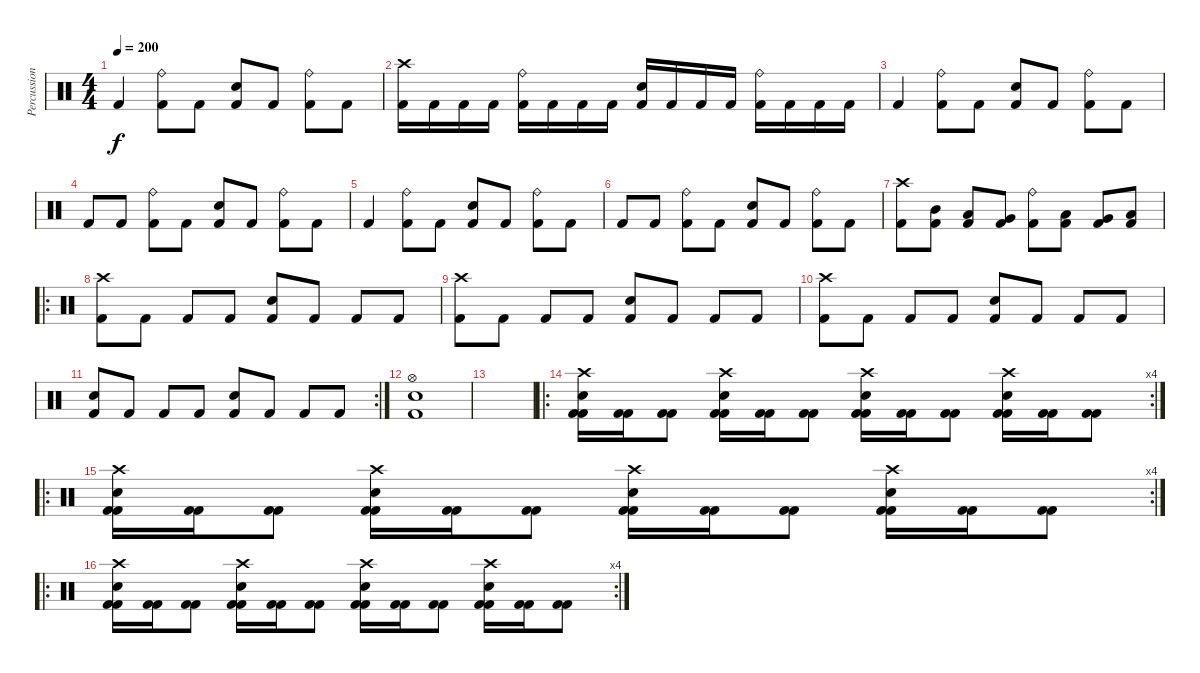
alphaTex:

\track ("Percussion" "Percussion") {instrument percussion}
\staff {score}
\articulation defaults
\ts (4 4)
\tempo 200
\clef neutral
\ks c "Kick (hit) 2".4{dy f}
("Ride (bell)" "Kick (hit) 2").8 "Kick (hit) 2".8 ("Electric Snare (hit)" "Kick (hit) 2").8 "Kick (hit) 2".8 ("Ride (bell)" "Kick (hit) 2").8 "Kick (hit) 2".8 |
("Crash high (hit)" "Kick (hit) 2").16 "Kick (hit) 2".16 "Kick (hit) 2".16 "Kick (hit) 2".16 ("Ride (bell)" "Kick (hit) 2").16 "Kick (hit) 2".16 "Kick (hit) 2".16 "Kick (hit) 2".16 ("Electric Snare (hit)" "Kick (hit) 2").16 "Kick (hit) 2".16 "Kick (hit) 2".16 "Kick (hit) 2".16 ("Ride (bell)" "Kick (hit) 2").16 "Kick (hit) 2".16 "Kick (hit) 2".16 "Kick (hit) 2".16 |
"Kick (hit) 2".4 ("Ride (bell)" "Kick (hit) 2").8 "Kick (hit) 2".8 ("Electric Snare (hit)" "Kick (hit) 2").8 "Kick (hit) 2".8 ("Ride (bell)" "Kick (hit) 2").8 "Kick (hit) 2".8 |
"Kick (hit) 2".8 "Kick (hit) 2".8 ("Ride (bell)" "Kick (hit) 2").8 "Kick (hit) 2".8 ("Electric Snare (hit)" "Kick (hit) 2").8 "Kick (hit) 2".8 ("Ride (bell)" "Kick (hit) 2").8 "Kick (hit) 2".8 |
"Kick (hit) 2".4 ("Ride (bell)" "Kick (hit) 2").8 "Kick (hit) 2".8 ("Electric Snare (hit)" "Kick (hit) 2").8 "Kick (hit) 2".8 ("Ride (bell)" "Kick (hit) 2").8 "Kick (hit) 2".8 |
"Kick (hit) 2".8 "Kick (hit) 2".8 ("Ride (bell)" "Kick (hit) 2").8 "Kick (hit) 2".8 ("Electric Snare (hit)" "Kick (hit) 2").8 "Kick (hit) 2".8 ("Ride (bell)" "Kick (hit) 2").8 "Kick (hit) 2".8 |
("Crash high (hit)" "Kick (hit) 2").8 ("Mid Tom (hit)" "Kick (hit) 2").8 ("Low Tom (hit)" "Kick (hit) 2").8 ("Very Low Tom (hit)" "Kick (hit) 2").8 ("Ride (bell)" "Kick (hit) 2").8 ("Low Tom (hit)" "Kick (hit) 2").8 ("Very Low Tom (hit)" "Kick (hit) 2").8 ("Low Floor Tom (hit)" "Kick (hit) 2").8 |
\ro
("Crash high (hit)" "Kick (hit) 2").8 "Kick (hit) 2".8 "Kick (hit) 2".8 "Kick (hit) 2".8 ("Electric Snare (hit)" "Kick (hit) 2").8 "Kick (hit) 2".8 "Kick (hit) 2".8 "Kick (hit) 2".8 |
("Crash high (hit)" "Kick (hit) 2").8 "Kick (hit) 2".8 "Kick (hit) 2".8 "Kick (hit) 2".8 ("Electric Snare (hit)" "Kick (hit) 2").8 "Kick (hit) 2".8 "Kick (hit) 2".8 "Kick (hit) 2".8 |
("Crash high (hit)" "Kick (hit) 2").8 "Kick (hit) 2".8 "Kick (hit) 2".8 "Kick (hit) 2".8 ("Electric Snare (hit)" "Kick (hit) 2").8 "Kick (hit) 2".8 "Kick (hit) 2".8 "Kick (hit) 2".8 |
\rc 2
("Electric Snare (hit)" "Kick (hit) 2").8 "Kick (hit) 2".8 "Kick (hit) 2".8 "Kick (hit) 2".8 ("Electric Snare (hit)" "Kick (hit) 2").8 "Kick (hit) 2".8 "Kick (hit) 2".8 "Kick (hit) 2".8 |
("Hi-Hat (open)" "Electric Snare (hit)" "Kick (hit) 2").1 |
|
\ro
\rc 4
("Crash high (hit)" "Electric Snare (hit)" "Kick (hit) 2" "Kick (hit) 2").16 ("Kick (hit) 2" "Kick (hit) 2").16 ("Kick (hit) 2" "Kick (hit) 2").8 ("Crash high (hit)" "Electric Snare (hit)" "Kick (hit) 2" "Kick (hit) 2").16 ("Kick (hit) 2" "Kick (hit) 2").16 ("Kick (hit) 2" "Kick (hit) 2").8 ("Crash high (hit)" "Electric Snare (hit)" "Kick (hit) 2" "Kick (hit) 2").16 ("Kick (hit) 2" "Kick (hit) 2").16 ("Kick (hit) 2" "Kick (hit) 2").8 ("Crash high (hit)" "Electric Snare (hit)" "Kick (hit) 2" "Kick (hit) 2").16 ("Kick (hit) 2" "Kick (hit) 2").16 ("Kick (hit) 2" "Kick (hit) 2").8 |
\ro
\rc 4
("Crash high (hit)" "Electric Snare (hit)" "Kick (hit) 2" "Kick (hit) 2").16 ("Kick (hit) 2" "Kick (hit) 2").16 ("Kick (hit) 2" "Kick (hit) 2").8 ("Crash high (hit)" "Electric Snare (hit)" "Kick (hit) 2" "Kick (hit) 2").16 ("Kick (hit) 2" "Kick (hit) 2").16 ("Kick (hit) 2" "Kick (hit) 2").8 ("Crash high (hit)" "Electric Snare (hit)" "Kick (hit) 2" "Kick (hit) 2").16 ("Kick (hit) 2" "Kick (hit) 2").16 ("Kick (hit) 2" "Kick (hit) 2").8 ("Crash high (hit)" "Electric Snare (hit)" "Kick (hit) 2" "Kick (hit) 2").16 ("Kick (hit) 2" "Kick (hit) 2").16 ("Kick (hit) 2" "Kick (hit) 2").8 |
\ro
\rc 4
("Crash high (hit)" "Electric Snare (hit)" "Kick (hit) 2" "Kick (hit) 2").16 ("Kick (hit) 2" "Kick (hit) 2").16 ("Kick (hit) 2" "Kick (hit) 2").8 ("Crash high (hit)" "Electric Snare (hit)" "Kick (hit) 2" "Kick (hit) 2").16 ("Kick (hit) 2" "Kick (hit) 2").16 ("Kick (hit) 2" "Kick (hit) 2").8 ("Crash high (hit)" "Electric Snare (hit)" "Kick (hit) 2" "Kick (hit) 2").16 ("Kick (hit) 2" "Kick (hit) 2").16 ("Kick (hit) 2" "Kick (hit) 2").8 ("Crash high (hit)" "Electric Snare (hit)" "Kick (hit) 2" "Kick (hit) 2").16 ("Kick (hit) 2" "Kick (hit) 2").16 ("Kick (hit) 2" "Kick (hit) 2").8
